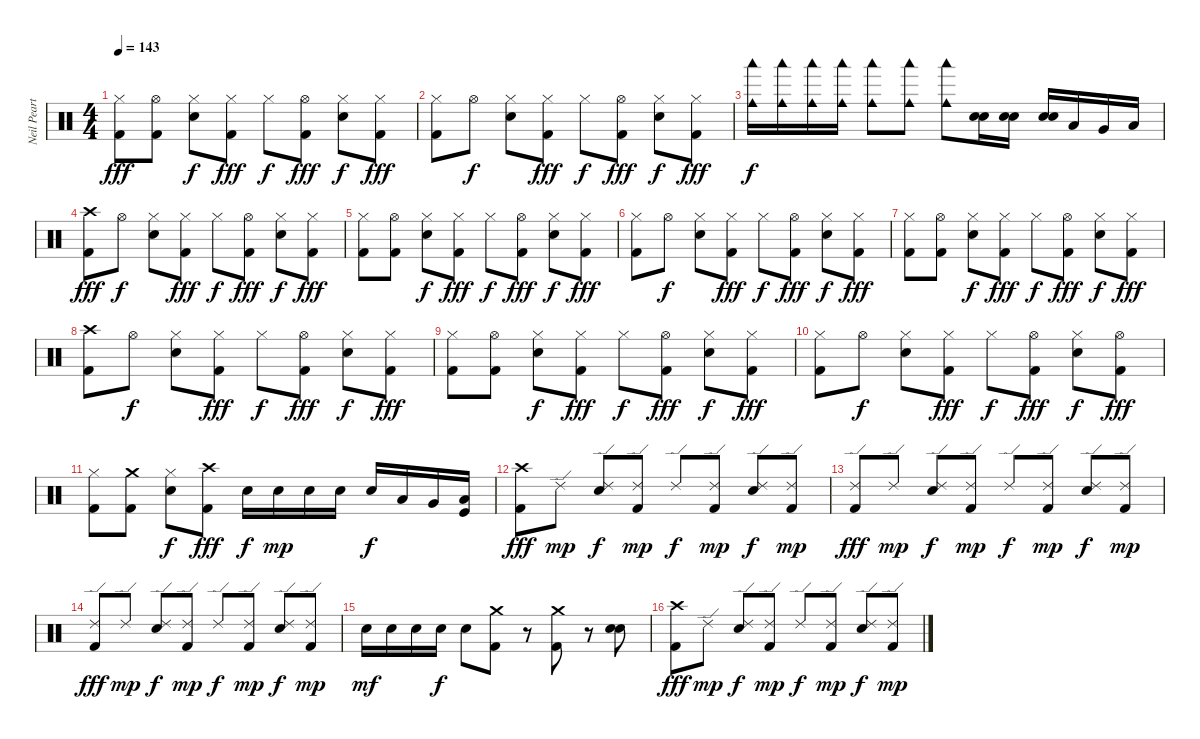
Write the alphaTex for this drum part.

\track ("Neil Peart" "Neil Peart") {instrument percussion}
\staff {score}
\articulation defaults
\ts (4 4)
\tempo 143
\clef neutral
\ks c
("Kick (hit) 2" "Hi-Hat (closed)").8{dy fff} ("Kick (hit) 2" "Hi-Hat (open)").8 ("Electric Snare (hit)" "Hi-Hat (closed)").8{dy f} ("Kick (hit) 2" "Hi-Hat (closed)").8{dy fff} "Hi-Hat (closed)".8{dy f} ("Kick (hit) 2" "Hi-Hat (open)").8{dy fff} ("Electric Snare (hit)" "Hi-Hat (closed)").8{dy f} ("Kick (hit) 2" "Hi-Hat (closed)").8{dy fff} |
("Kick (hit) 2" "Hi-Hat (closed)").8 "Hi-Hat (open)".8{dy f} ("Electric Snare (hit)" "Hi-Hat (closed)").8 ("Kick (hit) 2" "Hi-Hat (closed)").8{dy fff} "Hi-Hat (closed)".8{dy f} ("Kick (hit) 2" "Hi-Hat (open)").8{dy fff} ("Electric Snare (hit)" "Hi-Hat (closed)").8{dy f} ("Kick (hit) 2" "Hi-Hat (closed)").8{dy fff} |
("Woodblock low (hit)" "Cowbell medium (hit)").16{dy f} ("Woodblock low (hit)" "Cowbell medium (hit)").16 ("Woodblock low (hit)" "Cowbell medium (hit)").16 ("Woodblock low (hit)" "Cowbell medium (hit)").16 ("Woodblock low (hit)" "Cowbell medium (hit)").8 ("Woodblock low (hit)" "Cowbell medium (hit)").8 ("Woodblock low (hit)" "Cowbell medium (hit)").8 ("Electric Snare (hit)" "Snare (hit) 2").16 ("Electric Snare (hit)" "Snare (hit) 2").16 ("Electric Snare (hit)" "Snare (hit) 2").16 "Low Tom (hit)".16 "Very Low Tom (hit)".16 "Low Floor Tom (hit)".16 |
("Kick (hit) 2" "Crash high (hit)").8{dy fff} "Hi-Hat (open)".8{dy f} ("Electric Snare (hit)" "Hi-Hat (closed)").8 ("Kick (hit) 2" "Hi-Hat (closed)").8{dy fff} "Hi-Hat (closed)".8{dy f} ("Kick (hit) 2" "Hi-Hat (open)").8{dy fff} ("Electric Snare (hit)" "Hi-Hat (closed)").8{dy f} ("Kick (hit) 2" "Hi-Hat (closed)").8{dy fff} |
("Kick (hit) 2" "Hi-Hat (closed)").8 ("Kick (hit) 2" "Hi-Hat (open)").8 ("Electric Snare (hit)" "Hi-Hat (closed)").8{dy f} ("Kick (hit) 2" "Hi-Hat (closed)").8{dy fff} "Hi-Hat (closed)".8{dy f} ("Kick (hit) 2" "Hi-Hat (open)").8{dy fff} ("Electric Snare (hit)" "Hi-Hat (closed)").8{dy f} ("Kick (hit) 2" "Hi-Hat (closed)").8{dy fff} |
("Kick (hit) 2" "Hi-Hat (closed)").8 "Hi-Hat (open)".8{dy f} ("Electric Snare (hit)" "Hi-Hat (closed)").8 ("Kick (hit) 2" "Hi-Hat (closed)").8{dy fff} "Hi-Hat (closed)".8{dy f} ("Kick (hit) 2" "Hi-Hat (open)").8{dy fff} ("Electric Snare (hit)" "Hi-Hat (closed)").8{dy f} ("Kick (hit) 2" "Hi-Hat (closed)").8{dy fff} |
("Kick (hit) 2" "Hi-Hat (closed)").8 ("Kick (hit) 2" "Hi-Hat (open)").8 ("Electric Snare (hit)" "Hi-Hat (closed)").8{dy f} ("Kick (hit) 2" "Hi-Hat (closed)").8{dy fff} "Hi-Hat (closed)".8{dy f} ("Kick (hit) 2" "Hi-Hat (open)").8{dy fff} ("Electric Snare (hit)" "Hi-Hat (closed)").8{dy f} ("Kick (hit) 2" "Hi-Hat (closed)").8{dy fff} |
("Kick (hit) 2" "Crash high (hit)").8 "Hi-Hat (open)".8{dy f} ("Electric Snare (hit)" "Hi-Hat (closed)").8 ("Kick (hit) 2" "Hi-Hat (closed)").8{dy fff} "Hi-Hat (closed)".8{dy f} ("Kick (hit) 2" "Hi-Hat (open)").8{dy fff} ("Electric Snare (hit)" "Hi-Hat (closed)").8{dy f} ("Kick (hit) 2" "Hi-Hat (closed)").8{dy fff} |
("Kick (hit) 2" "Hi-Hat (closed)").8 ("Kick (hit) 2" "Hi-Hat (open)").8 ("Electric Snare (hit)" "Hi-Hat (closed)").8{dy f} ("Kick (hit) 2" "Hi-Hat (closed)").8{dy fff} "Hi-Hat (closed)".8{dy f} ("Kick (hit) 2" "Hi-Hat (open)").8{dy fff} ("Electric Snare (hit)" "Hi-Hat (closed)").8{dy f} ("Kick (hit) 2" "Hi-Hat (closed)").8{dy fff} |
("Kick (hit) 2" "Hi-Hat (closed)").8 "Hi-Hat (open)".8{dy f} ("Electric Snare (hit)" "Hi-Hat (closed)").8 ("Kick (hit) 2" "Hi-Hat (closed)").8{dy fff} "Hi-Hat (closed)".8{dy f} ("Kick (hit) 2" "Hi-Hat (open)").8{dy fff} ("Electric Snare (hit)" "Hi-Hat (closed)").8{dy f} ("Kick (hit) 2" "Hi-Hat (open)").8{dy fff} |
("Kick (hit) 2" "Hi-Hat (closed)").8 ("Kick (hit) 2" "Crash medium (hit)").8 ("Electric Snare (hit)" "Hi-Hat (closed)").8{dy f} ("Kick (hit) 2" "Crash high (hit)").8{dy fff} "Electric Snare (hit)".16{dy f} "Electric Snare (hit)".16{dy mp} "Electric Snare (hit)".16 "Electric Snare (hit)".16 "Electric Snare (hit)".16{dy f} "Low Tom (hit)".16 "Very Low Tom (hit)".16 ("Low Floor Tom (hit)" "Kick (hit)").16 |
("Kick (hit) 2" "Crash high (hit)").8{dy fff} "Ride (edge) 2".8{dy mp} ("Electric Snare (hit)" "Ride (edge) 2").8{dy f} ("Kick (hit) 2" "Ride (edge) 2").8{dy mp} "Ride (edge) 2".8{dy f} ("Kick (hit) 2" "Ride (edge) 2").8{dy mp} ("Electric Snare (hit)" "Ride (edge) 2").8{dy f} ("Kick (hit) 2" "Ride (edge) 2").8{dy mp} |
("Kick (hit) 2" "Ride (edge) 2").8{dy fff} "Ride (edge) 2".8{dy mp} ("Electric Snare (hit)" "Ride (edge) 2").8{dy f} ("Kick (hit) 2" "Ride (edge) 2").8{dy mp} "Ride (edge) 2".8{dy f} ("Kick (hit) 2" "Ride (edge) 2").8{dy mp} ("Electric Snare (hit)" "Ride (edge) 2").8{dy f} ("Kick (hit) 2" "Ride (edge) 2").8{dy mp} |
("Kick (hit) 2" "Ride (edge) 2").8{dy fff} "Ride (edge) 2".8{dy mp} ("Electric Snare (hit)" "Ride (edge) 2").8{dy f} ("Kick (hit) 2" "Ride (edge) 2").8{dy mp} "Ride (edge) 2".8{dy f} ("Kick (hit) 2" "Ride (edge) 2").8{dy mp} ("Electric Snare (hit)" "Ride (edge) 2").8{dy f} ("Kick (hit) 2" "Ride (edge) 2").8{dy mp} |
"Electric Snare (hit)".16{dy mf} "Electric Snare (hit)".16 "Electric Snare (hit)".16 "Electric Snare (hit)".16{dy f} "Electric Snare (hit)".8 ("Crash medium (hit)" "Kick (hit) 2").8 r.8 ("Crash medium (hit)" "Kick (hit) 2").8 r.8 ("Snare (hit) 2" "Electric Snare (hit)").8 |
("Kick (hit) 2" "Crash high (hit)").8{dy fff} "Ride (edge) 2".8{dy mp} ("Electric Snare (hit)" "Ride (edge) 2").8{dy f} ("Kick (hit) 2" "Ride (edge) 2").8{dy mp} "Ride (edge) 2".8{dy f} ("Kick (hit) 2" "Ride (edge) 2").8{dy mp} ("Electric Snare (hit)" "Ride (edge) 2").8{dy f} ("Kick (hit) 2" "Ride (edge) 2").8{dy mp}
